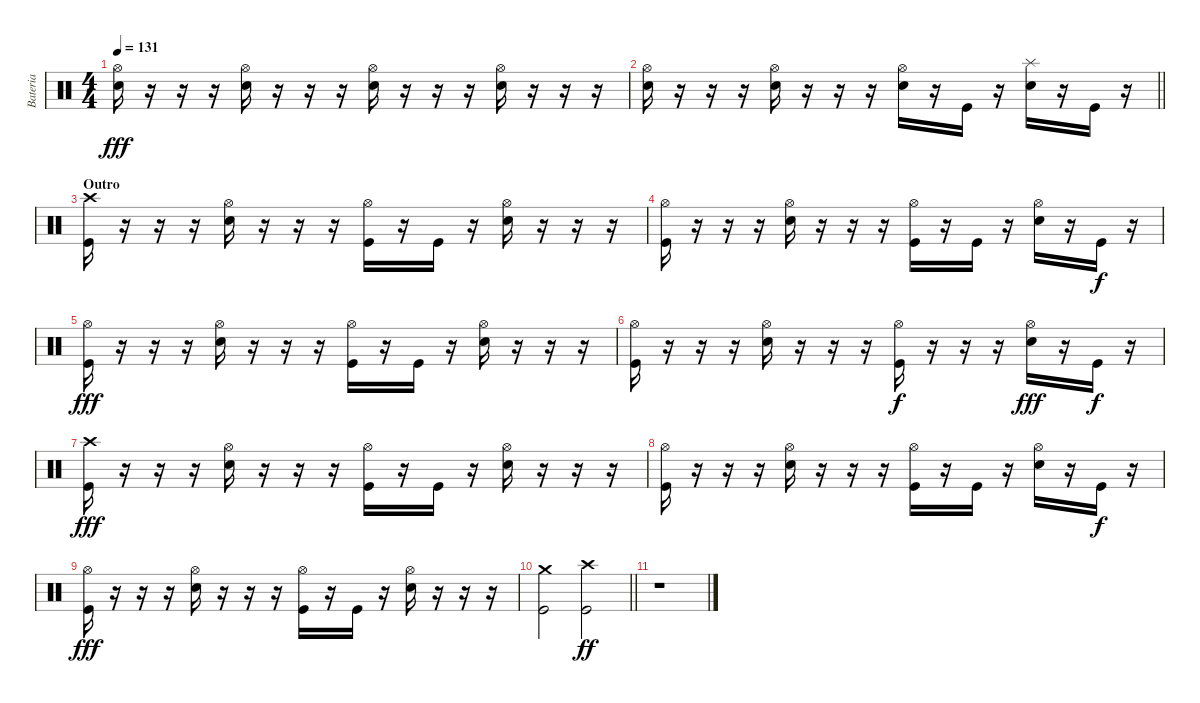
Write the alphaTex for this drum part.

\track ("Bateria" "Bateria") {instrument percussion}
\staff {score}
\articulation defaults
\ts (4 4)
\tempo 131
\clef neutral
\ks c
("Hi-Hat (open)" "Electric Snare (hit)").16{dy fff} r.16 r.16 r.16 ("Hi-Hat (open)" "Electric Snare (hit)").16 r.16 r.16 r.16 ("Hi-Hat (open)" "Electric Snare (hit)").16 r.16 r.16 r.16 ("Hi-Hat (open)" "Electric Snare (hit)").16 r.16 r.16 r.16 |
\barLineRight lightlight
("Hi-Hat (open)" "Electric Snare (hit)").16 r.16 r.16 r.16 ("Hi-Hat (open)" "Electric Snare (hit)").16 r.16 r.16 r.16 ("Hi-Hat (open)" "Electric Snare (hit)").16 r.16 "Kick (hit)".16 r.16 ("Splash (hit)" "Electric Snare (hit)").16 r.16 "Kick (hit)".16 r.16 |
\section ("" "Outro")
("Crash high (hit)" "Kick (hit)").16 r.16 r.16 r.16 ("Hi-Hat (open)" "Electric Snare (hit)").16 r.16 r.16 r.16 ("Hi-Hat (open)" "Kick (hit)").16 r.16 "Kick (hit)".16 r.16 ("Hi-Hat (open)" "Electric Snare (hit)").16 r.16 r.16 r.16 |
("Hi-Hat (open)" "Kick (hit)").16 r.16 r.16 r.16 ("Hi-Hat (open)" "Electric Snare (hit)").16 r.16 r.16 r.16 ("Hi-Hat (open)" "Kick (hit)").16 r.16 "Kick (hit)".16 r.16 ("Hi-Hat (open)" "Electric Snare (hit)").16 r.16 "Kick (hit)".16{dy f} r.16 |
("Hi-Hat (open)" "Kick (hit)").16{dy fff} r.16 r.16 r.16 ("Hi-Hat (open)" "Electric Snare (hit)").16 r.16 r.16 r.16 ("Hi-Hat (open)" "Kick (hit)").16 r.16 "Kick (hit)".16 r.16 ("Hi-Hat (open)" "Electric Snare (hit)").16 r.16 r.16 r.16 |
("Hi-Hat (open)" "Kick (hit)").16 r.16 r.16 r.16 ("Hi-Hat (open)" "Electric Snare (hit)").16 r.16 r.16 r.16 ("Hi-Hat (open)" "Kick (hit)").16{dy f} r.16 r.16 r.16 ("Hi-Hat (open)" "Electric Snare (hit)").16{dy fff} r.16 "Kick (hit)".16{dy f} r.16 |
("Crash high (hit)" "Kick (hit)").16{dy fff} r.16 r.16 r.16 ("Hi-Hat (open)" "Electric Snare (hit)").16 r.16 r.16 r.16 ("Hi-Hat (open)" "Kick (hit)").16 r.16 "Kick (hit)".16 r.16 ("Hi-Hat (open)" "Electric Snare (hit)").16 r.16 r.16 r.16 |
("Hi-Hat (open)" "Kick (hit)").16 r.16 r.16 r.16 ("Hi-Hat (open)" "Electric Snare (hit)").16 r.16 r.16 r.16 ("Hi-Hat (open)" "Kick (hit)").16 r.16 "Kick (hit)".16 r.16 ("Hi-Hat (open)" "Electric Snare (hit)").16 r.16 "Kick (hit)".16{dy f} r.16 |
("Hi-Hat (open)" "Kick (hit)").16{dy fff} r.16 r.16 r.16 ("Hi-Hat (open)" "Electric Snare (hit)").16 r.16 r.16 r.16 ("Hi-Hat (open)" "Kick (hit)").16 r.16 "Kick (hit)".16 r.16 ("Hi-Hat (open)" "Electric Snare (hit)").16 r.16 r.16 r.16 |
\barLineRight lightlight
("Crash medium (hit)" "Kick (hit)").2 ("Crash high (hit)" "Kick (hit)").2{dy ff} |
r.1
